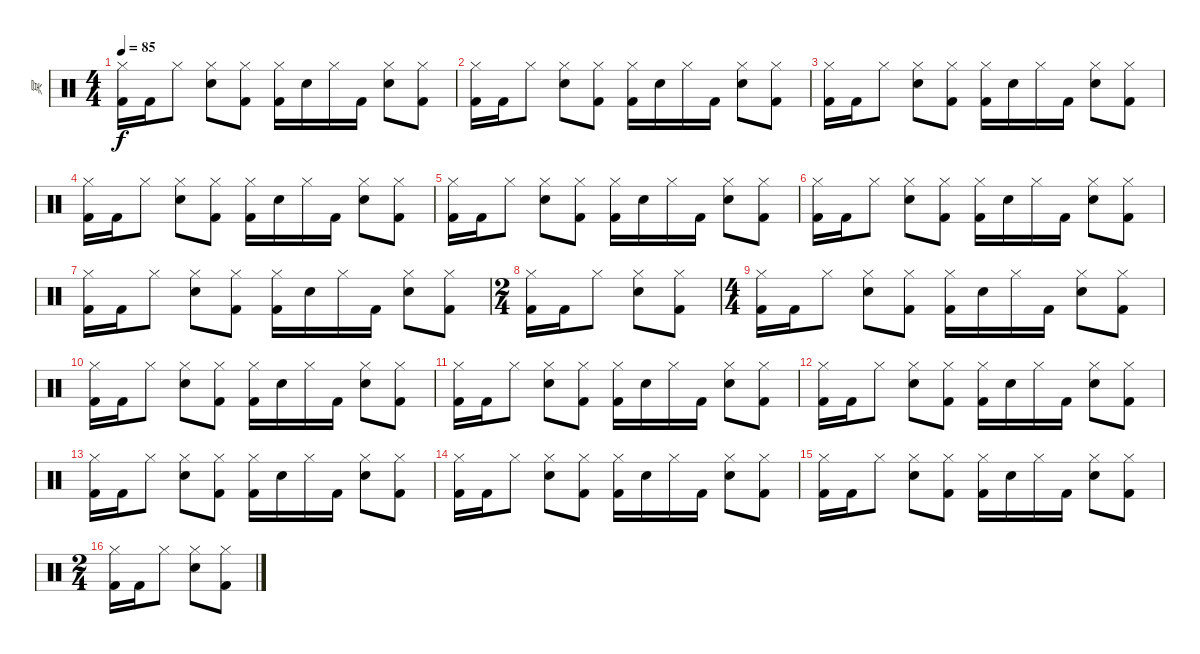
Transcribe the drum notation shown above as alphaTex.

\track ("冥" "冥") {instrument percussion}
\staff {score}
\articulation defaults
\ts (4 4)
\tempo 85
\clef neutral
\ks c
("Hi-Hat (closed)" "Kick (hit) 2").16{dy f} "Kick (hit) 2".16 "Hi-Hat (closed)".8 ("Hi-Hat (closed)" "Snare (hit) 2").8 ("Hi-Hat (closed)" "Kick (hit) 2").8 ("Hi-Hat (closed)" "Kick (hit) 2").16 "Snare (hit) 2".16 "Hi-Hat (closed)".16 "Kick (hit) 2".16 ("Hi-Hat (closed)" "Snare (hit) 2").8 ("Hi-Hat (closed)" "Kick (hit) 2").8 |
("Hi-Hat (closed)" "Kick (hit) 2").16 "Kick (hit) 2".16 "Hi-Hat (closed)".8 ("Hi-Hat (closed)" "Snare (hit) 2").8 ("Hi-Hat (closed)" "Kick (hit) 2").8 ("Hi-Hat (closed)" "Kick (hit) 2").16 "Snare (hit) 2".16 "Hi-Hat (closed)".16 "Kick (hit) 2".16 ("Hi-Hat (closed)" "Snare (hit) 2").8 ("Hi-Hat (closed)" "Kick (hit) 2").8 |
("Hi-Hat (closed)" "Kick (hit) 2").16 "Kick (hit) 2".16 "Hi-Hat (closed)".8 ("Hi-Hat (closed)" "Snare (hit) 2").8 ("Hi-Hat (closed)" "Kick (hit) 2").8 ("Hi-Hat (closed)" "Kick (hit) 2").16 "Snare (hit) 2".16 "Hi-Hat (closed)".16 "Kick (hit) 2".16 ("Hi-Hat (closed)" "Snare (hit) 2").8 ("Hi-Hat (closed)" "Kick (hit) 2").8 |
("Hi-Hat (closed)" "Kick (hit) 2").16 "Kick (hit) 2".16 "Hi-Hat (closed)".8 ("Hi-Hat (closed)" "Snare (hit) 2").8 ("Hi-Hat (closed)" "Kick (hit) 2").8 ("Hi-Hat (closed)" "Kick (hit) 2").16 "Snare (hit) 2".16 "Hi-Hat (closed)".16 "Kick (hit) 2".16 ("Hi-Hat (closed)" "Snare (hit) 2").8 ("Hi-Hat (closed)" "Kick (hit) 2").8 |
("Hi-Hat (closed)" "Kick (hit) 2").16 "Kick (hit) 2".16 "Hi-Hat (closed)".8 ("Hi-Hat (closed)" "Snare (hit) 2").8 ("Hi-Hat (closed)" "Kick (hit) 2").8 ("Hi-Hat (closed)" "Kick (hit) 2").16 "Snare (hit) 2".16 "Hi-Hat (closed)".16 "Kick (hit) 2".16 ("Hi-Hat (closed)" "Snare (hit) 2").8 ("Hi-Hat (closed)" "Kick (hit) 2").8 |
("Hi-Hat (closed)" "Kick (hit) 2").16 "Kick (hit) 2".16 "Hi-Hat (closed)".8 ("Hi-Hat (closed)" "Snare (hit) 2").8 ("Hi-Hat (closed)" "Kick (hit) 2").8 ("Hi-Hat (closed)" "Kick (hit) 2").16 "Snare (hit) 2".16 "Hi-Hat (closed)".16 "Kick (hit) 2".16 ("Hi-Hat (closed)" "Snare (hit) 2").8 ("Hi-Hat (closed)" "Kick (hit) 2").8 |
("Hi-Hat (closed)" "Kick (hit) 2").16 "Kick (hit) 2".16 "Hi-Hat (closed)".8 ("Hi-Hat (closed)" "Snare (hit) 2").8 ("Hi-Hat (closed)" "Kick (hit) 2").8 ("Hi-Hat (closed)" "Kick (hit) 2").16 "Snare (hit) 2".16 "Hi-Hat (closed)".16 "Kick (hit) 2".16 ("Hi-Hat (closed)" "Snare (hit) 2").8 ("Hi-Hat (closed)" "Kick (hit) 2").8 |
\ts (2 4)
("Hi-Hat (closed)" "Kick (hit) 2").16 "Kick (hit) 2".16 "Hi-Hat (closed)".8 ("Hi-Hat (closed)" "Snare (hit) 2").8 ("Hi-Hat (closed)" "Kick (hit) 2").8 |
\ts (4 4)
("Hi-Hat (closed)" "Kick (hit) 2").16 "Kick (hit) 2".16 "Hi-Hat (closed)".8 ("Hi-Hat (closed)" "Snare (hit) 2").8 ("Hi-Hat (closed)" "Kick (hit) 2").8 ("Hi-Hat (closed)" "Kick (hit) 2").16 "Snare (hit) 2".16 "Hi-Hat (closed)".16 "Kick (hit) 2".16 ("Hi-Hat (closed)" "Snare (hit) 2").8 ("Hi-Hat (closed)" "Kick (hit) 2").8 |
("Hi-Hat (closed)" "Kick (hit) 2").16 "Kick (hit) 2".16 "Hi-Hat (closed)".8 ("Hi-Hat (closed)" "Snare (hit) 2").8 ("Hi-Hat (closed)" "Kick (hit) 2").8 ("Hi-Hat (closed)" "Kick (hit) 2").16 "Snare (hit) 2".16 "Hi-Hat (closed)".16 "Kick (hit) 2".16 ("Hi-Hat (closed)" "Snare (hit) 2").8 ("Hi-Hat (closed)" "Kick (hit) 2").8 |
("Hi-Hat (closed)" "Kick (hit) 2").16 "Kick (hit) 2".16 "Hi-Hat (closed)".8 ("Hi-Hat (closed)" "Snare (hit) 2").8 ("Hi-Hat (closed)" "Kick (hit) 2").8 ("Hi-Hat (closed)" "Kick (hit) 2").16 "Snare (hit) 2".16 "Hi-Hat (closed)".16 "Kick (hit) 2".16 ("Hi-Hat (closed)" "Snare (hit) 2").8 ("Hi-Hat (closed)" "Kick (hit) 2").8 |
("Hi-Hat (closed)" "Kick (hit) 2").16 "Kick (hit) 2".16 "Hi-Hat (closed)".8 ("Hi-Hat (closed)" "Snare (hit) 2").8 ("Hi-Hat (closed)" "Kick (hit) 2").8 ("Hi-Hat (closed)" "Kick (hit) 2").16 "Snare (hit) 2".16 "Hi-Hat (closed)".16 "Kick (hit) 2".16 ("Hi-Hat (closed)" "Snare (hit) 2").8 ("Hi-Hat (closed)" "Kick (hit) 2").8 |
("Hi-Hat (closed)" "Kick (hit) 2").16 "Kick (hit) 2".16 "Hi-Hat (closed)".8 ("Hi-Hat (closed)" "Snare (hit) 2").8 ("Hi-Hat (closed)" "Kick (hit) 2").8 ("Hi-Hat (closed)" "Kick (hit) 2").16 "Snare (hit) 2".16 "Hi-Hat (closed)".16 "Kick (hit) 2".16 ("Hi-Hat (closed)" "Snare (hit) 2").8 ("Hi-Hat (closed)" "Kick (hit) 2").8 |
("Hi-Hat (closed)" "Kick (hit) 2").16 "Kick (hit) 2".16 "Hi-Hat (closed)".8 ("Hi-Hat (closed)" "Snare (hit) 2").8 ("Hi-Hat (closed)" "Kick (hit) 2").8 ("Hi-Hat (closed)" "Kick (hit) 2").16 "Snare (hit) 2".16 "Hi-Hat (closed)".16 "Kick (hit) 2".16 ("Hi-Hat (closed)" "Snare (hit) 2").8 ("Hi-Hat (closed)" "Kick (hit) 2").8 |
("Hi-Hat (closed)" "Kick (hit) 2").16 "Kick (hit) 2".16 "Hi-Hat (closed)".8 ("Hi-Hat (closed)" "Snare (hit) 2").8 ("Hi-Hat (closed)" "Kick (hit) 2").8 ("Hi-Hat (closed)" "Kick (hit) 2").16 "Snare (hit) 2".16 "Hi-Hat (closed)".16 "Kick (hit) 2".16 ("Hi-Hat (closed)" "Snare (hit) 2").8 ("Hi-Hat (closed)" "Kick (hit) 2").8 |
\ts (2 4)
("Hi-Hat (closed)" "Kick (hit) 2").16 "Kick (hit) 2".16 "Hi-Hat (closed)".8 ("Hi-Hat (closed)" "Snare (hit) 2").8 ("Hi-Hat (closed)" "Kick (hit) 2").8
